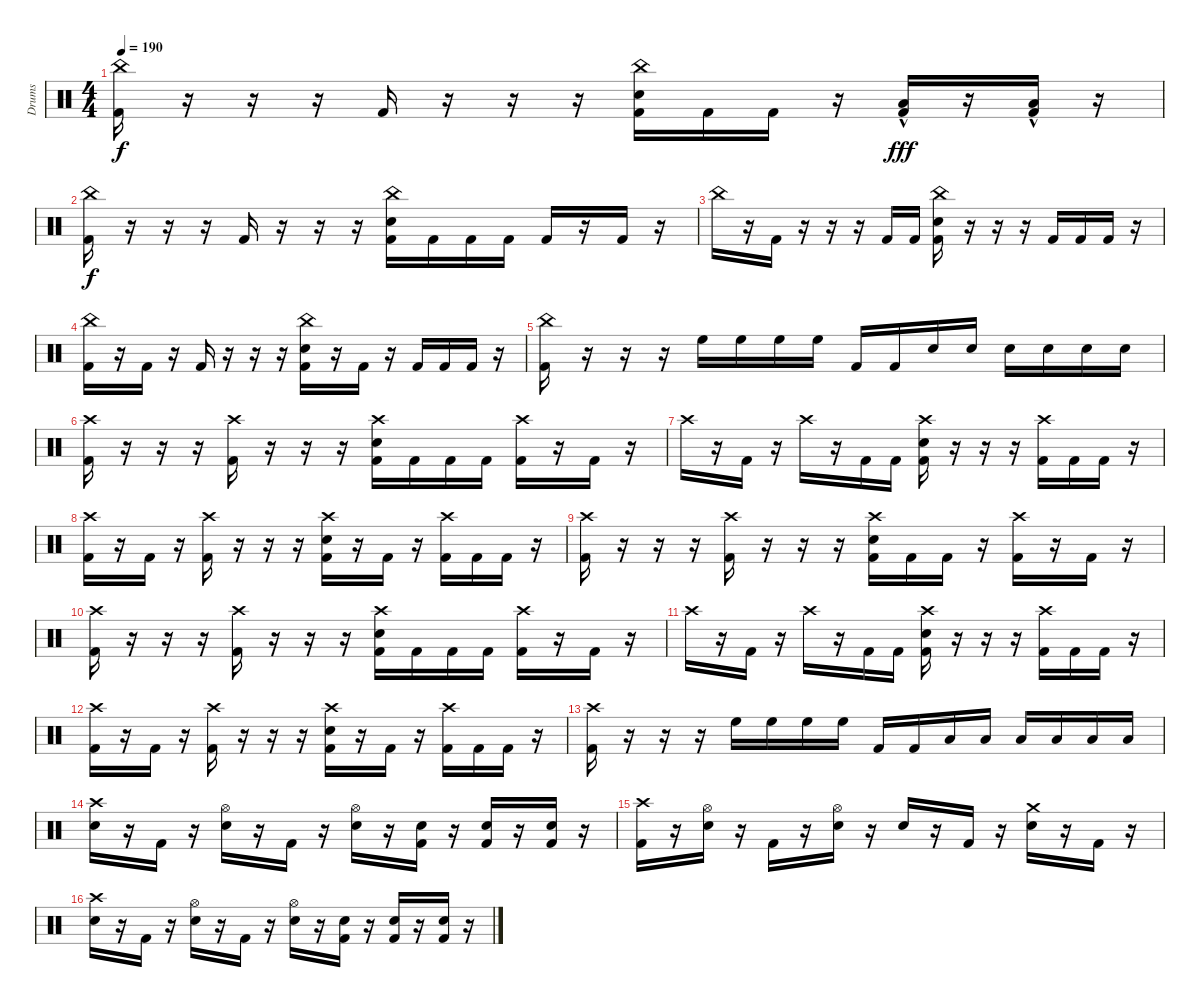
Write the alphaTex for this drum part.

\track ("Drums" "Drums") {instrument percussion}
\staff {score}
\articulation defaults
\ts (4 4)
\tempo 190
\clef neutral
\ks c
("China (hit)" "Kick (hit) 2").16{dy f} r.16 r.16 r.16 "Kick (hit) 2".16 r.16 r.16 r.16 ("China (hit)" "Electric Snare (hit)" "Kick (hit) 2").16 "Kick (hit) 2".16 "Kick (hit) 2".16 r.16 ("Low Floor Tom (hit)"{hac} "Kick (hit) 2").16{dy fff} r.16 ("Low Floor Tom (hit)"{hac} "Kick (hit) 2").16 r.16 |
("China (hit)" "Kick (hit) 2").16{dy f} r.16 r.16 r.16 "Kick (hit) 2".16 r.16 r.16 r.16 ("China (hit)" "Electric Snare (hit)" "Kick (hit) 2").16 "Kick (hit) 2".16 "Kick (hit) 2".16 "Kick (hit) 2".16 "Kick (hit) 2".16 r.16 "Kick (hit) 2".16 r.16 |
"China (hit)".16 r.16 "Kick (hit) 2".16 r.16 r.16 r.16 "Kick (hit) 2".16 "Kick (hit) 2".16 ("China (hit)" "Electric Snare (hit)" "Kick (hit) 2").16 r.16 r.16 r.16 "Kick (hit) 2".16 "Kick (hit) 2".16 "Kick (hit) 2".16 r.16 |
("China (hit)" "Kick (hit) 2").16 r.16 "Kick (hit) 2".16 r.16 "Kick (hit) 2".16 r.16 r.16 r.16 ("China (hit)" "Electric Snare (hit)" "Kick (hit) 2").16 r.16 "Kick (hit) 2".16 r.16 "Kick (hit) 2".16 "Kick (hit) 2".16 "Kick (hit) 2".16 r.16 |
("China (hit)" "Kick (hit) 2").16 r.16 r.16 r.16 "High Floor Tom (hit)".16 "High Floor Tom (hit)".16 "High Floor Tom (hit)".16 "High Floor Tom (hit)".16 "Kick (hit) 2".16 "Kick (hit) 2".16 "Electric Snare (hit)".16 "Electric Snare (hit)".16 "Electric Snare (hit)".16 "Electric Snare (hit)".16 "Electric Snare (hit)".16 "Electric Snare (hit)".16 |
("Crash high (hit)" "Kick (hit) 2").16 r.16 r.16 r.16 ("Crash high (hit)" "Kick (hit) 2").16 r.16 r.16 r.16 ("Crash high (hit)" "Electric Snare (hit)" "Kick (hit) 2").16 "Kick (hit) 2".16 "Kick (hit) 2".16 "Kick (hit) 2".16 ("Crash high (hit)" "Kick (hit) 2").16 r.16 "Kick (hit) 2".16 r.16 |
"Crash high (hit)".16 r.16 "Kick (hit) 2".16 r.16 "Crash high (hit)".16 r.16 "Kick (hit) 2".16 "Kick (hit) 2".16 ("Crash high (hit)" "Electric Snare (hit)" "Kick (hit) 2").16 r.16 r.16 r.16 ("Crash high (hit)" "Kick (hit) 2").16 "Kick (hit) 2".16 "Kick (hit) 2".16 r.16 |
("Crash high (hit)" "Kick (hit) 2").16 r.16 "Kick (hit) 2".16 r.16 ("Crash high (hit)" "Kick (hit) 2").16 r.16 r.16 r.16 ("Crash high (hit)" "Electric Snare (hit)" "Kick (hit) 2").16 r.16 "Kick (hit) 2".16 r.16 ("Crash high (hit)" "Kick (hit) 2").16 "Kick (hit) 2".16 "Kick (hit) 2".16 r.16 |
("Crash high (hit)" "Kick (hit) 2").16 r.16 r.16 r.16 ("Crash high (hit)" "Kick (hit) 2").16 r.16 r.16 r.16 ("Crash high (hit)" "Electric Snare (hit)" "Kick (hit) 2").16 "Kick (hit) 2".16 "Kick (hit) 2".16 r.16 ("Crash high (hit)" "Kick (hit) 2").16 r.16 "Kick (hit) 2".16 r.16 |
("Crash high (hit)" "Kick (hit) 2").16 r.16 r.16 r.16 ("Crash high (hit)" "Kick (hit) 2").16 r.16 r.16 r.16 ("Crash high (hit)" "Electric Snare (hit)" "Kick (hit) 2").16 "Kick (hit) 2".16 "Kick (hit) 2".16 "Kick (hit) 2".16 ("Crash high (hit)" "Kick (hit) 2").16 r.16 "Kick (hit) 2".16 r.16 |
"Crash high (hit)".16 r.16 "Kick (hit) 2".16 r.16 "Crash high (hit)".16 r.16 "Kick (hit) 2".16 "Kick (hit) 2".16 ("Crash high (hit)" "Electric Snare (hit)" "Kick (hit) 2").16 r.16 r.16 r.16 ("Crash high (hit)" "Kick (hit) 2").16 "Kick (hit) 2".16 "Kick (hit) 2".16 r.16 |
("Crash high (hit)" "Kick (hit) 2").16 r.16 "Kick (hit) 2".16 r.16 ("Crash high (hit)" "Kick (hit) 2").16 r.16 r.16 r.16 ("Crash high (hit)" "Electric Snare (hit)" "Kick (hit) 2").16 r.16 "Kick (hit) 2".16 r.16 ("Crash high (hit)" "Kick (hit) 2").16 "Kick (hit) 2".16 "Kick (hit) 2".16 r.16 |
("Crash high (hit)" "Kick (hit) 2").16 r.16 r.16 r.16 "High Floor Tom (hit)".16 "High Floor Tom (hit)".16 "High Floor Tom (hit)".16 "High Floor Tom (hit)".16 "Kick (hit) 2".16 "Kick (hit) 2".16 "Low Tom (hit)".16 "Low Tom (hit)".16 "Low Tom (hit)".16 "Low Tom (hit)".16 "Low Tom (hit)".16 "Low Tom (hit)".16 |
("Crash high (hit)" "Electric Snare (hit)").16 r.16 "Kick (hit) 2".16 r.16 ("Hi-Hat (open)" "Electric Snare (hit)").16 r.16 "Kick (hit) 2".16 r.16 ("Hi-Hat (open)" "Electric Snare (hit)").16 r.16 ("Electric Snare (hit)" "Kick (hit) 2").16 r.16 ("Electric Snare (hit)" "Kick (hit) 2").16 r.16 ("Electric Snare (hit)" "Kick (hit) 2").16 r.16 |
("Crash high (hit)" "Kick (hit) 2").16 r.16 ("Hi-Hat (open)" "Electric Snare (hit)").16 r.16 "Kick (hit) 2".16 r.16 ("Hi-Hat (open)" "Electric Snare (hit)").16 r.16 "Electric Snare (hit)".16 r.16 "Kick (hit) 2".16 r.16 ("Crash medium (hit)" "Electric Snare (hit)").16 r.16 "Kick (hit) 2".16 r.16 |
("Crash high (hit)" "Electric Snare (hit)").16 r.16 "Kick (hit) 2".16 r.16 ("Hi-Hat (open)" "Electric Snare (hit)").16 r.16 "Kick (hit) 2".16 r.16 ("Hi-Hat (open)" "Electric Snare (hit)").16 r.16 ("Electric Snare (hit)" "Kick (hit) 2").16 r.16 ("Electric Snare (hit)" "Kick (hit) 2").16 r.16 ("Electric Snare (hit)" "Kick (hit) 2").16 r.16
